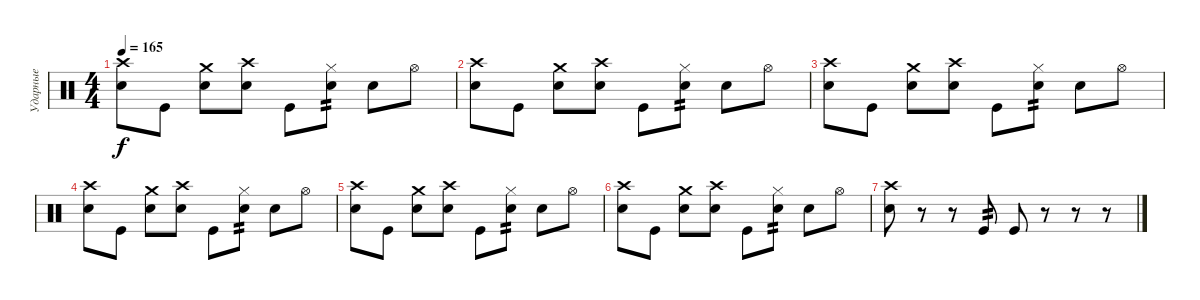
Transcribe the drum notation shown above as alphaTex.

\track ("Ударные" "Ударные") {instrument percussion}
\staff {score}
\articulation defaults
\ts (4 4)
\tempo 165
\clef neutral
\ks c
("Crash high (hit)" "Snare (hit) 2").8{dy f} "Kick (hit)".8 ("Crash medium (hit)" "Snare (hit) 2").8 ("Crash high (hit)" "Snare (hit) 2").8 "Kick (hit)".8 ("Hi-Hat (closed)" "Snare (hit) 2").8{tp 2} "Snare (hit) 2".8 "Hi-Hat (open)".8 |
("Crash high (hit)" "Snare (hit) 2").8 "Kick (hit)".8 ("Crash medium (hit)" "Snare (hit) 2").8 ("Crash high (hit)" "Snare (hit) 2").8 "Kick (hit)".8 ("Hi-Hat (closed)" "Snare (hit) 2").8{tp 2} "Snare (hit) 2".8 "Hi-Hat (open)".8 |
("Crash high (hit)" "Snare (hit) 2").8 "Kick (hit)".8 ("Crash medium (hit)" "Snare (hit) 2").8 ("Crash high (hit)" "Snare (hit) 2").8 "Kick (hit)".8 ("Hi-Hat (closed)" "Snare (hit) 2").8{tp 2} "Snare (hit) 2".8 "Hi-Hat (open)".8 |
("Crash high (hit)" "Snare (hit) 2").8 "Kick (hit)".8 ("Crash medium (hit)" "Snare (hit) 2").8 ("Crash high (hit)" "Snare (hit) 2").8 "Kick (hit)".8 ("Hi-Hat (closed)" "Snare (hit) 2").8{tp 2} "Snare (hit) 2".8 "Hi-Hat (open)".8 |
("Crash high (hit)" "Snare (hit) 2").8 "Kick (hit)".8 ("Crash medium (hit)" "Snare (hit) 2").8 ("Crash high (hit)" "Snare (hit) 2").8 "Kick (hit)".8 ("Hi-Hat (closed)" "Snare (hit) 2").8{tp 2} "Snare (hit) 2".8 "Hi-Hat (open)".8 |
("Crash high (hit)" "Snare (hit) 2").8 "Kick (hit)".8 ("Crash medium (hit)" "Snare (hit) 2").8 ("Crash high (hit)" "Snare (hit) 2").8 "Kick (hit)".8 ("Hi-Hat (closed)" "Snare (hit) 2").8{tp 2} "Snare (hit) 2".8 "Hi-Hat (open)".8 |
("Crash high (hit)" "Snare (hit) 2").8 r.8 r.8 "Kick (hit)".8{tp 2} "Kick (hit)".8 r.8 r.8 r.8
